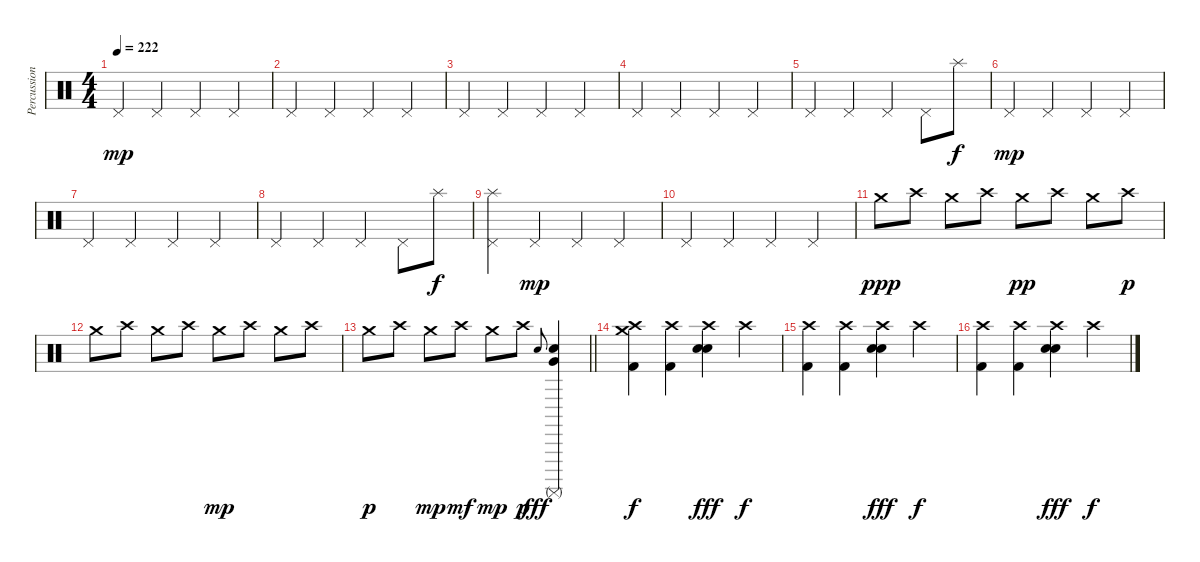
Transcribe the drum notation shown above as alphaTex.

\track ("Percussions" "Percussion") {instrument percussion}
\staff {score}
\articulation defaults
\ts (4 4)
\tempo 222
\tempo 105
\tempo 222
\clef neutral
\ks c "Pedal Hi-Hat (hit)".4{dy mp} "Pedal Hi-Hat (hit)".4 "Pedal Hi-Hat (hit)".4 "Pedal Hi-Hat (hit)".4
|
"Pedal Hi-Hat (hit)".4 "Pedal Hi-Hat (hit)".4 "Pedal Hi-Hat (hit)".4 "Pedal Hi-Hat (hit)".4 |
"Pedal Hi-Hat (hit)".4 "Pedal Hi-Hat (hit)".4 "Pedal Hi-Hat (hit)".4 "Pedal Hi-Hat (hit)".4 |
"Pedal Hi-Hat (hit)".4 "Pedal Hi-Hat (hit)".4 "Pedal Hi-Hat (hit)".4 "Pedal Hi-Hat (hit)".4 |
"Pedal Hi-Hat (hit)".4 "Pedal Hi-Hat (hit)".4 "Pedal Hi-Hat (hit)".4 "Pedal Hi-Hat (hit)".8 "Splash (hit)".8{dy f} |
"Pedal Hi-Hat (hit)".4{dy mp} "Pedal Hi-Hat (hit)".4 "Pedal Hi-Hat (hit)".4 "Pedal Hi-Hat (hit)".4 |
"Pedal Hi-Hat (hit)".4 "Pedal Hi-Hat (hit)".4 "Pedal Hi-Hat (hit)".4 "Pedal Hi-Hat (hit)".4 |
"Pedal Hi-Hat (hit)".4 "Pedal Hi-Hat (hit)".4 "Pedal Hi-Hat (hit)".4 "Pedal Hi-Hat (hit)".8 "Splash (hit)".8{dy f} |
("Pedal Hi-Hat (hit)" "Splash (hit)").4 "Pedal Hi-Hat (hit)".4{dy mp} "Pedal Hi-Hat (hit)".4 "Pedal Hi-Hat (hit)".4 |
"Pedal Hi-Hat (hit)".4 "Pedal Hi-Hat (hit)".4 "Pedal Hi-Hat (hit)".4 "Pedal Hi-Hat (hit)".4 |
"Crash medium (hit)".8{dy ppp} "Crash high (hit)".8 "Crash medium (hit)".8 "Crash high (hit)".8 "Crash medium (hit)".8{dy pp} "Crash high (hit)".8 "Crash medium (hit)".8 "Crash high (hit)".8{dy p} |
"Crash medium (hit)".8 "Crash high (hit)".8 "Crash medium (hit)".8 "Crash high (hit)".8 "Crash medium (hit)".8{dy mp} "Crash high (hit)".8 "Crash medium (hit)".8 "Crash high (hit)".8 |
\barLineRight lightlight "Crash medium (hit)".8{dy p} "Crash high (hit)".8 "Crash medium (hit)".8{dy mp} "Crash high (hit)".8{dy mf} "Crash medium (hit)".8{dy mp} "Crash high (hit)".8{dy p} "Electric Snare (hit)".8{gr onbeat dy fff}
("Electric Snare (hit)" "Very Low Tom (hit)" "Surdo (mute)").4 |
\section ("" "")
("Crash high (hit)" "Crash medium (hit)" "Kick (hit) 2").4{dy f} ("Crash high (hit)" "Kick (hit) 2").4 ("Crash high (hit)" "Snare (hit) 2" "Electric Snare (hit)").4{dy fff} "Crash high (hit)".4{dy f} |
("Crash high (hit)" "Kick (hit) 2").4 ("Crash high (hit)" "Kick (hit) 2").4 ("Crash high (hit)" "Electric Snare (hit)" "Snare (hit) 2").4{dy fff} "Crash high (hit)".4{dy f} |
("Crash high (hit)" "Kick (hit) 2").4 ("Crash high (hit)" "Kick (hit) 2").4 ("Crash high (hit)" "Electric Snare (hit)" "Snare (hit) 2").4{dy fff} "Crash high (hit)".4{dy f}
